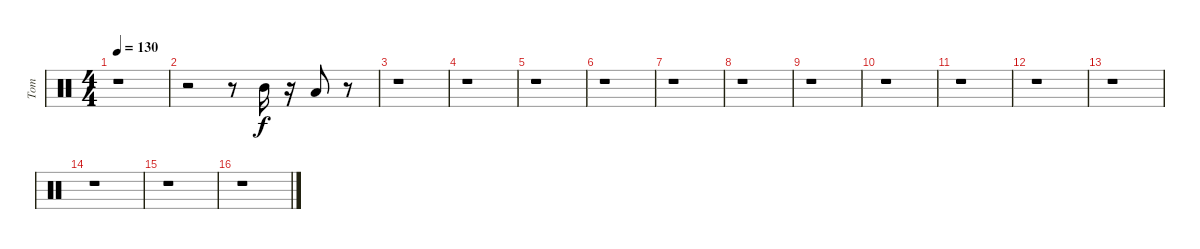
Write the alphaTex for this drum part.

\track ("Tom" "Tom") {instrument percussion}
\staff {score}
\articulation defaults
\ts (4 4)
\tempo 130
\clef neutral
\ks c
r.1{dy f} |
r.2 r.8 "Mid Tom (hit)".16 r.16 "Low Floor Tom (hit)".8 r.8 |
r.1 |
r.1 |
r.1 |
r.1 |
r.1 |
r.1 |
r.1 |
r.1 |
r.1 |
r.1 |
r.1 |
r.1 |
r.1 |
r.1
